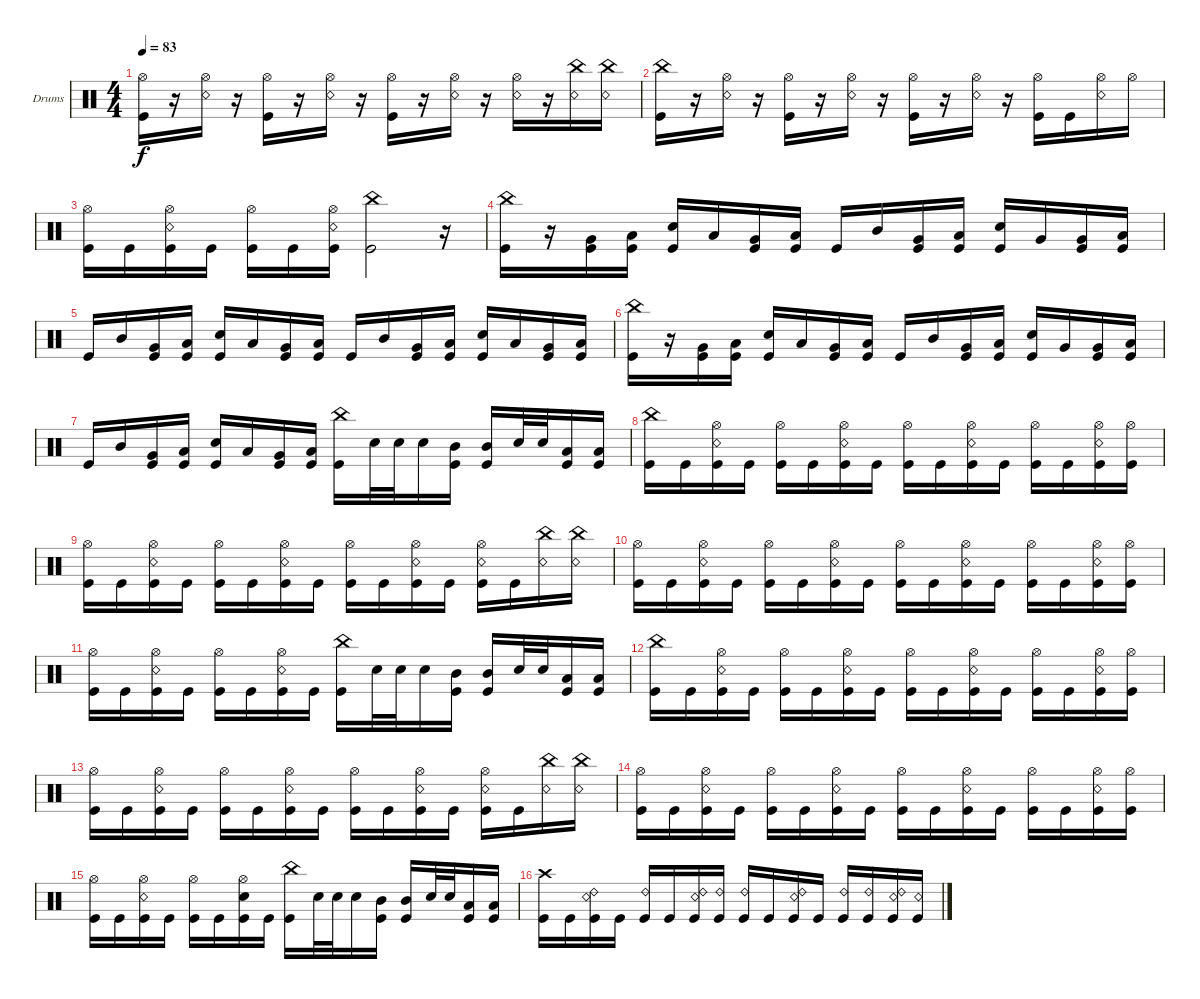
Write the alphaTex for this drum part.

\defaultSystemsLayout 4
\bracketExtendMode groupsimilarinstruments
\firstSystemTrackNameOrientation horizontal
\otherSystemsTrackNameOrientation horizontal
\track ("Drumkit" "Drums") {instrument percussion}
\staff {score}
\articulation defaults
\ts (4 4)
\tempo 83
\clef neutral
\ks c
("Kick (hit)" "Hi-Hat (open)").16{dy f} r.16 ("Snare (rim shot)" "Hi-Hat (open)").16 r.16 ("Kick (hit)" "Hi-Hat (open)").16 r.16 ("Snare (rim shot)" "Hi-Hat (open)").16 r.16 ("Kick (hit)" "Hi-Hat (open)").16 r.16 ("Snare (rim shot)" "Hi-Hat (open)").16 r.16 ("Snare (rim shot)" "Hi-Hat (open)").16 r.16 ("Snare (rim shot)" "China (hit)").16 ("Snare (rim shot)" "China (hit)").16 |
("Kick (hit)" "China (hit)").16 r.16 ("Snare (rim shot)" "Hi-Hat (open)").16 r.16 ("Kick (hit)" "Hi-Hat (open)").16 r.16 ("Snare (rim shot)" "Hi-Hat (open)").16 r.16 ("Hi-Hat (open)" "Kick (hit)").16 r.16 ("Snare (rim shot)" "Hi-Hat (open)").16 r.16 ("Kick (hit)" "Hi-Hat (open)").16 "Kick (hit)".16 ("Snare (rim shot)" "Hi-Hat (open)").16 "Hi-Hat (open)".16 |
("Kick (hit)" "Hi-Hat (open)").16 "Kick (hit)".16 ("Kick (hit)" "Snare (rim shot)" "Hi-Hat (open)").16 "Kick (hit)".16 ("Kick (hit)" "Hi-Hat (open)").16 "Kick (hit)".16 ("Kick (hit)" "Snare (rim shot)" "Hi-Hat (open)").16 ("China (hit)" "Kick (hit)").2 r.16 |
("Kick (hit)" "China (hit)").16 r.16 ("Very Low Tom (hit)" "Kick (hit)").16 ("Low Tom (hit)" "Kick (hit)").16 ("Snare (hit) 2" "Kick (hit)").16 "Low Tom (hit)".16 ("Very Low Tom (hit)" "Kick (hit)").16 ("Low Tom (hit)" "Kick (hit)").16 "Kick (hit)".16 "Mid Tom (hit)".16 ("Very Low Tom (hit)" "Kick (hit)").16 ("Low Tom (hit)" "Kick (hit)").16 ("Snare (hit) 2" "Kick (hit)").16 "Very Low Tom (hit)".16 ("Kick (hit)" "Very Low Tom (hit)").16 ("Kick (hit)" "Low Tom (hit)").16 |
"Kick (hit)".16 "Mid Tom (hit)".16 ("Very Low Tom (hit)" "Kick (hit)").16 ("Low Tom (hit)" "Kick (hit)").16 ("Snare (hit) 2" "Kick (hit)").16 "Low Tom (hit)".16 ("Very Low Tom (hit)" "Kick (hit)").16 ("Low Tom (hit)" "Kick (hit)").16 "Kick (hit)".16 "Mid Tom (hit)".16 ("Very Low Tom (hit)" "Kick (hit)").16 ("Low Tom (hit)" "Kick (hit)").16 ("Snare (hit) 2" "Kick (hit)").16 "Low Tom (hit)".16 ("Kick (hit)" "Very Low Tom (hit)").16 ("Kick (hit)" "Low Tom (hit)").16 |
("Kick (hit)" "China (hit)").16 r.16 ("Very Low Tom (hit)" "Kick (hit)").16 ("Low Tom (hit)" "Kick (hit)").16 ("Snare (hit) 2" "Kick (hit)").16 "Low Tom (hit)".16 ("Very Low Tom (hit)" "Kick (hit)").16 ("Low Tom (hit)" "Kick (hit)").16 "Kick (hit)".16 "Mid Tom (hit)".16 ("Very Low Tom (hit)" "Kick (hit)").16 ("Low Tom (hit)" "Kick (hit)").16 ("Snare (hit) 2" "Kick (hit)").16 "Very Low Tom (hit)".16 ("Kick (hit)" "Very Low Tom (hit)").16 ("Kick (hit)" "Low Tom (hit)").16 |
"Kick (hit)".16 "Mid Tom (hit)".16 ("Very Low Tom (hit)" "Kick (hit)").16 ("Low Tom (hit)" "Kick (hit)").16 ("Snare (hit) 2" "Kick (hit)").16 "Low Tom (hit)".16 ("Very Low Tom (hit)" "Kick (hit)").16 ("Low Tom (hit)" "Kick (hit)").16 ("China (hit)" "Kick (hit)").16 "Snare (hit) 2".32 "Snare (hit) 2".32 "Snare (hit) 2".16 ("Mid Tom (hit)" "Kick (hit)").16 ("Mid Tom (hit)" "Kick (hit)").16 "Snare (hit) 2".32 "Snare (hit) 2".32 ("Low Tom (hit)" "Kick (hit)").16 ("Low Tom (hit)" "Kick (hit)").16 |
("Kick (hit)" "China (hit)").16 "Kick (hit)".16 ("Kick (hit)" "Snare (rim shot)" "Hi-Hat (open)").16 "Kick (hit)".16 ("Kick (hit)" "Hi-Hat (open)").16 "Kick (hit)".16 ("Kick (hit)" "Snare (rim shot)" "Hi-Hat (open)").16 "Kick (hit)".16 ("Kick (hit)" "Hi-Hat (open)").16 "Kick (hit)".16 ("Kick (hit)" "Snare (rim shot)" "Hi-Hat (open)").16 "Kick (hit)".16 ("Kick (hit)" "Hi-Hat (open)").16 "Kick (hit)".16 ("Kick (hit)" "Snare (rim shot)" "Hi-Hat (open)").16 ("Kick (hit)" "Hi-Hat (open)").16 |
("Kick (hit)" "Hi-Hat (open)").16 "Kick (hit)".16 ("Kick (hit)" "Snare (rim shot)" "Hi-Hat (open)").16 "Kick (hit)".16 ("Kick (hit)" "Hi-Hat (open)").16 "Kick (hit)".16 ("Kick (hit)" "Snare (rim shot)" "Hi-Hat (open)").16 "Kick (hit)".16 ("Kick (hit)" "Hi-Hat (open)").16 "Kick (hit)".16 ("Kick (hit)" "Snare (rim shot)" "Hi-Hat (open)").16 "Kick (hit)".16 ("Kick (hit)" "Snare (rim shot)" "Hi-Hat (open)").16 "Kick (hit)".16 ("Snare (rim shot)" "China (hit)").16 ("Snare (rim shot)" "China (hit)").16 |
("Kick (hit)" "Hi-Hat (open)").16 "Kick (hit)".16 ("Kick (hit)" "Snare (rim shot)" "Hi-Hat (open)").16 "Kick (hit)".16 ("Kick (hit)" "Hi-Hat (open)").16 "Kick (hit)".16 ("Kick (hit)" "Snare (rim shot)" "Hi-Hat (open)").16 "Kick (hit)".16 ("Kick (hit)" "Hi-Hat (open)").16 "Kick (hit)".16 ("Kick (hit)" "Snare (rim shot)" "Hi-Hat (open)").16 "Kick (hit)".16 ("Kick (hit)" "Hi-Hat (open)").16 "Kick (hit)".16 ("Kick (hit)" "Snare (rim shot)" "Hi-Hat (open)").16 ("Kick (hit)" "Hi-Hat (open)").16 |
("Kick (hit)" "Hi-Hat (open)").16 "Kick (hit)".16 ("Kick (hit)" "Snare (rim shot)" "Hi-Hat (open)").16 "Kick (hit)".16 ("Kick (hit)" "Hi-Hat (open)").16 "Kick (hit)".16 ("Kick (hit)" "Snare (rim shot)" "Hi-Hat (open)").16 "Kick (hit)".16 ("China (hit)" "Kick (hit)").16 "Snare (hit) 2".32 "Snare (hit) 2".32 "Snare (hit) 2".16 ("Mid Tom (hit)" "Kick (hit)").16 ("Mid Tom (hit)" "Kick (hit)").16 "Snare (hit) 2".32 "Snare (hit) 2".32 ("Low Tom (hit)" "Kick (hit)").16 ("Low Tom (hit)" "Kick (hit)").16 |
("Kick (hit)" "China (hit)").16 "Kick (hit)".16 ("Kick (hit)" "Snare (rim shot)" "Hi-Hat (open)").16 "Kick (hit)".16 ("Kick (hit)" "Hi-Hat (open)").16 "Kick (hit)".16 ("Kick (hit)" "Snare (rim shot)" "Hi-Hat (open)").16 "Kick (hit)".16 ("Kick (hit)" "Hi-Hat (open)").16 "Kick (hit)".16 ("Kick (hit)" "Snare (rim shot)" "Hi-Hat (open)").16 "Kick (hit)".16 ("Kick (hit)" "Hi-Hat (open)").16 "Kick (hit)".16 ("Kick (hit)" "Snare (rim shot)" "Hi-Hat (open)").16 ("Kick (hit)" "Hi-Hat (open)").16 |
("Kick (hit)" "Hi-Hat (open)").16 "Kick (hit)".16 ("Kick (hit)" "Snare (rim shot)" "Hi-Hat (open)").16 "Kick (hit)".16 ("Kick (hit)" "Hi-Hat (open)").16 "Kick (hit)".16 ("Kick (hit)" "Snare (rim shot)" "Hi-Hat (open)").16 "Kick (hit)".16 ("Kick (hit)" "Hi-Hat (open)").16 "Kick (hit)".16 ("Kick (hit)" "Snare (rim shot)" "Hi-Hat (open)").16 "Kick (hit)".16 ("Kick (hit)" "Snare (rim shot)" "Hi-Hat (open)").16 "Kick (hit)".16 ("Snare (rim shot)" "China (hit)").16 ("Snare (rim shot)" "China (hit)").16 |
("Kick (hit)" "Hi-Hat (open)").16 "Kick (hit)".16 ("Kick (hit)" "Snare (rim shot)" "Hi-Hat (open)").16 "Kick (hit)".16 ("Kick (hit)" "Hi-Hat (open)").16 "Kick (hit)".16 ("Kick (hit)" "Snare (rim shot)" "Hi-Hat (open)").16 "Kick (hit)".16 ("Kick (hit)" "Hi-Hat (open)").16 "Kick (hit)".16 ("Kick (hit)" "Snare (rim shot)" "Hi-Hat (open)").16 "Kick (hit)".16 ("Kick (hit)" "Hi-Hat (open)").16 "Kick (hit)".16 ("Kick (hit)" "Snare (rim shot)" "Hi-Hat (open)").16 ("Kick (hit)" "Hi-Hat (open)").16 |
("Kick (hit)" "Hi-Hat (open)").16 "Kick (hit)".16 ("Kick (hit)" "Snare (rim shot)" "Hi-Hat (open)").16 "Kick (hit)".16 ("Kick (hit)" "Hi-Hat (open)").16 "Kick (hit)".16 ("Kick (hit)" "Snare (hit) 2" "Hi-Hat (open)").16 "Kick (hit)".16 ("China (hit)" "Kick (hit)").16 "Snare (hit) 2".32 "Snare (hit) 2".32 "Snare (hit) 2".16 ("Mid Tom (hit)" "Kick (hit)").16 ("Mid Tom (hit)" "Kick (hit)").16 "Snare (hit) 2".32 "Snare (hit) 2".32 ("Low Tom (hit)" "Kick (hit)").16 ("Low Tom (hit)" "Kick (hit)").16 |
("Kick (hit)" "Crash high (hit)").16 "Kick (hit)".16 ("Kick (hit)" "Ride (bell) 2" "Snare (rim shot)").16 "Kick (hit)".16 ("Kick (hit)" "Ride (bell) 2").16 "Kick (hit)".16 ("Kick (hit)" "Ride (bell) 2" "Snare (rim shot)").16 ("Kick (hit)" "Ride (bell) 2").16 ("Kick (hit)" "Ride (bell) 2").16 "Kick (hit)".16 ("Kick (hit)" "Ride (bell) 2" "Snare (rim shot)").16 "Kick (hit)".16 ("Kick (hit)" "Ride (bell) 2").16 ("Kick (hit)" "Ride (bell) 2").16 ("Kick (hit)" "Ride (bell) 2" "Snare (rim shot)").16 ("Kick (hit)" "Snare (rim shot)").16
